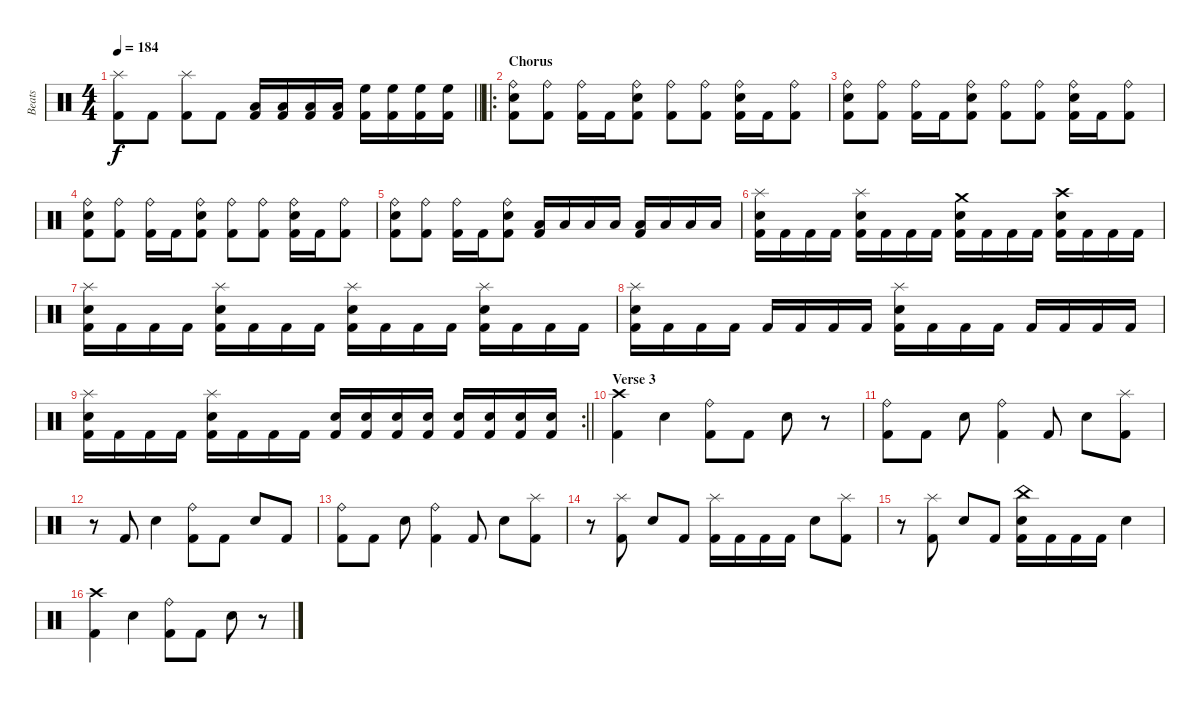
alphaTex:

\track ("Beats" "Beats") {instrument percussion}
\staff {score}
\articulation defaults
\ts (4 4)
\tempo 184
\clef neutral
\barLineRight lightlight
\ks c
("Splash (hit)" "Kick (hit) 2").8{dy f} "Kick (hit) 2".8 ("Splash (hit)" "Kick (hit) 2").8 "Kick (hit) 2".8 ("Low Floor Tom (hit)" "Kick (hit) 2").16 ("Low Floor Tom (hit)" "Kick (hit) 2").16 ("Low Floor Tom (hit)" "Kick (hit) 2").16 ("Low Floor Tom (hit)" "Kick (hit) 2").16 ("High Floor Tom (hit)" "Kick (hit) 2").16 ("High Floor Tom (hit)" "Kick (hit) 2").16 ("High Floor Tom (hit)" "Kick (hit) 2").16 ("High Floor Tom (hit)" "Kick (hit) 2").16 |
\ro
\section ("" "Chorus")
("Ride (bell)" "Electric Snare (hit)" "Kick (hit) 2").8 ("Ride (bell)" "Kick (hit) 2").8 ("Ride (bell)" "Kick (hit) 2").16 "Kick (hit) 2".16 ("Ride (bell)" "Electric Snare (hit)" "Kick (hit) 2").8 ("Ride (bell)" "Kick (hit) 2").8 ("Ride (bell)" "Kick (hit) 2").8 ("Ride (bell)" "Electric Snare (hit)" "Kick (hit) 2").16 "Kick (hit) 2".16 ("Ride (bell)" "Kick (hit) 2").8 |
("Ride (bell)" "Electric Snare (hit)" "Kick (hit) 2").8 ("Ride (bell)" "Kick (hit) 2").8 ("Ride (bell)" "Kick (hit) 2").16 "Kick (hit) 2".16 ("Ride (bell)" "Electric Snare (hit)" "Kick (hit) 2").8 ("Ride (bell)" "Kick (hit) 2").8 ("Ride (bell)" "Kick (hit) 2").8 ("Ride (bell)" "Electric Snare (hit)" "Kick (hit) 2").16 "Kick (hit) 2".16 ("Ride (bell)" "Kick (hit) 2").8 |
("Ride (bell)" "Electric Snare (hit)" "Kick (hit) 2").8 ("Ride (bell)" "Kick (hit) 2").8 ("Ride (bell)" "Kick (hit) 2").16 "Kick (hit) 2".16 ("Ride (bell)" "Electric Snare (hit)" "Kick (hit) 2").8 ("Ride (bell)" "Kick (hit) 2").8 ("Ride (bell)" "Kick (hit) 2").8 ("Ride (bell)" "Electric Snare (hit)" "Kick (hit) 2").16 "Kick (hit) 2".16 ("Ride (bell)" "Kick (hit) 2").8 |
("Ride (bell)" "Electric Snare (hit)" "Kick (hit) 2").8 ("Ride (bell)" "Kick (hit) 2").8 ("Ride (bell)" "Kick (hit) 2").16 "Kick (hit) 2".16 ("Ride (bell)" "Electric Snare (hit)" "Kick (hit) 2").8 ("Low Tom (hit)" "Kick (hit) 2").16 "Low Tom (hit)".16 "Low Tom (hit)".16 "Low Tom (hit)".16 ("Low Floor Tom (hit)" "Kick (hit) 2").16 "Low Floor Tom (hit)".16 "Low Floor Tom (hit)".16 "Low Floor Tom (hit)".16 |
("Splash (hit)" "Electric Snare (hit)" "Kick (hit) 2").16 "Kick (hit) 2".16 "Kick (hit) 2".16 "Kick (hit) 2".16 ("Splash (hit)" "Electric Snare (hit)" "Kick (hit) 2").16 "Kick (hit) 2".16 "Kick (hit) 2".16 "Kick (hit) 2".16 ("Crash medium (hit)" "Electric Snare (hit)" "Kick (hit) 2").16 "Kick (hit) 2".16 "Kick (hit) 2".16 "Kick (hit) 2".16 ("Crash high (hit)" "Electric Snare (hit)" "Kick (hit) 2").16 "Kick (hit) 2".16 "Kick (hit) 2".16 "Kick (hit) 2".16 |
("Splash (hit)" "Electric Snare (hit)" "Kick (hit) 2").16 "Kick (hit) 2".16 "Kick (hit) 2".16 "Kick (hit) 2".16 ("Splash (hit)" "Electric Snare (hit)" "Kick (hit) 2").16 "Kick (hit) 2".16 "Kick (hit) 2".16 "Kick (hit) 2".16 ("Splash (hit)" "Electric Snare (hit)" "Kick (hit) 2").16 "Kick (hit) 2".16 "Kick (hit) 2".16 "Kick (hit) 2".16 ("Splash (hit)" "Electric Snare (hit)" "Kick (hit) 2").16 "Kick (hit) 2".16 "Kick (hit) 2".16 "Kick (hit) 2".16 |
("Splash (hit)" "Electric Snare (hit)" "Kick (hit) 2").16 "Kick (hit) 2".16 "Kick (hit) 2".16 "Kick (hit) 2".16 "Kick (hit) 2".16 "Kick (hit) 2".16 "Kick (hit) 2".16 "Kick (hit) 2".16 ("Splash (hit)" "Electric Snare (hit)" "Kick (hit) 2").16 "Kick (hit) 2".16 "Kick (hit) 2".16 "Kick (hit) 2".16 "Kick (hit) 2".16 "Kick (hit) 2".16 "Kick (hit) 2".16 "Kick (hit) 2".16 |
\rc 2
\barLineRight lightlight
("Splash (hit)" "Electric Snare (hit)" "Kick (hit) 2").16 "Kick (hit) 2".16 "Kick (hit) 2".16 "Kick (hit) 2".16 ("Splash (hit)" "Electric Snare (hit)" "Kick (hit) 2").16 "Kick (hit) 2".16 "Kick (hit) 2".16 "Kick (hit) 2".16 ("Electric Snare (hit)" "Kick (hit) 2").16 ("Electric Snare (hit)" "Kick (hit) 2").16 ("Electric Snare (hit)" "Kick (hit) 2").16 ("Electric Snare (hit)" "Kick (hit) 2").16 ("Electric Snare (hit)" "Kick (hit) 2").16 ("Electric Snare (hit)" "Kick (hit) 2").16 ("Electric Snare (hit)" "Kick (hit) 2").16 ("Electric Snare (hit)" "Kick (hit) 2").16 |
\section ("" "Verse 3")
("Crash high (hit)" "Kick (hit) 2").4 "Electric Snare (hit)".4 ("Ride (bell)" "Kick (hit) 2").8 "Kick (hit) 2".8 "Electric Snare (hit)".8 r.8 |
("Ride (bell)" "Kick (hit) 2").8 "Kick (hit) 2".8 "Electric Snare (hit)".8 ("Ride (bell)" "Kick (hit) 2").4 "Kick (hit) 2".8 "Electric Snare (hit)".8 ("Splash (hit)" "Kick (hit) 2").8 |
r.8 "Kick (hit) 2".8 "Electric Snare (hit)".4 ("Ride (bell)" "Kick (hit) 2").8 "Kick (hit) 2".8 "Electric Snare (hit)".8 "Kick (hit) 2".8 |
("Ride (bell)" "Kick (hit) 2").8 "Kick (hit) 2".8 "Electric Snare (hit)".8 ("Ride (bell)" "Kick (hit) 2").4 "Kick (hit) 2".8 "Electric Snare (hit)".8 ("Splash (hit)" "Kick (hit) 2").8 |
r.8 ("Splash (hit)" "Kick (hit) 2").8 "Electric Snare (hit)".8 "Kick (hit) 2".8 ("Splash (hit)" "Kick (hit) 2").16 "Kick (hit) 2".16 "Kick (hit) 2".16 "Kick (hit) 2".16 "Electric Snare (hit)".8 ("Splash (hit)" "Kick (hit) 2").8 |
r.8 ("Splash (hit)" "Kick (hit) 2").8 "Electric Snare (hit)".8 "Kick (hit) 2".8 ("China (hit)" "Electric Snare (hit)" "Kick (hit) 2").16 "Kick (hit) 2".16 "Kick (hit) 2".16 "Kick (hit) 2".16 "Electric Snare (hit)".4 |
("Crash high (hit)" "Kick (hit) 2").4 "Electric Snare (hit)".4 ("Ride (bell)" "Kick (hit) 2").8 "Kick (hit) 2".8 "Electric Snare (hit)".8 r.8
